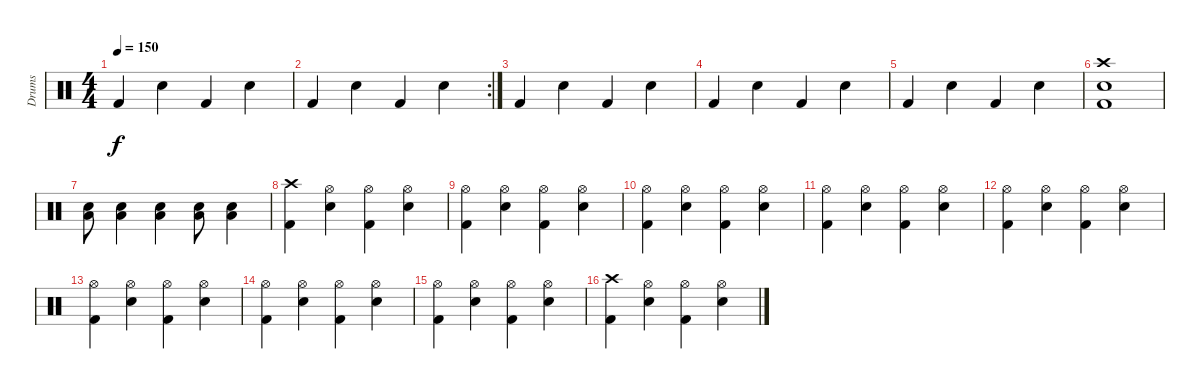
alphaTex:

\track ("Drums" "Drums") {instrument percussion}
\staff {score}
\articulation defaults
\ts (4 4)
\tempo 150
\clef neutral
\ks c "Kick (hit) 2".4{dy f} "Electric Snare (hit)".4 "Kick (hit) 2".4 "Electric Snare (hit)".4
|
\rc 2 "Kick (hit) 2".4 "Electric Snare (hit)".4 "Kick (hit) 2".4 "Electric Snare (hit)".4
|
"Kick (hit) 2".4 "Electric Snare (hit)".4 "Kick (hit) 2".4 "Electric Snare (hit)".4 |
"Kick (hit) 2".4 "Electric Snare (hit)".4 "Kick (hit) 2".4 "Electric Snare (hit)".4 |
"Kick (hit) 2".4 "Electric Snare (hit)".4 "Kick (hit) 2".4 "Electric Snare (hit)".4 |
("Crash high (hit)" "Electric Snare (hit)" "Kick (hit) 2").1 |
("Electric Snare (hit)" "Low Floor Tom (hit)").8 ("Electric Snare (hit)" "Low Floor Tom (hit)").4 ("Electric Snare (hit)" "Low Floor Tom (hit)").4 ("Electric Snare (hit)" "Low Floor Tom (hit)").8 ("Electric Snare (hit)" "Low Floor Tom (hit)").4 |
("Crash high (hit)" "Kick (hit) 2").4 ("Hi-Hat (open)" "Electric Snare (hit)").4 ("Hi-Hat (open)" "Kick (hit) 2").4 ("Hi-Hat (open)" "Electric Snare (hit)").4 |
("Hi-Hat (open)" "Kick (hit) 2").4 ("Hi-Hat (open)" "Electric Snare (hit)").4 ("Hi-Hat (open)" "Kick (hit) 2").4 ("Hi-Hat (open)" "Electric Snare (hit)").4 |
("Hi-Hat (open)" "Kick (hit) 2").4 ("Hi-Hat (open)" "Electric Snare (hit)").4 ("Hi-Hat (open)" "Kick (hit) 2").4 ("Hi-Hat (open)" "Electric Snare (hit)").4 |
("Hi-Hat (open)" "Kick (hit) 2").4 ("Hi-Hat (open)" "Electric Snare (hit)").4 ("Hi-Hat (open)" "Kick (hit) 2").4 ("Hi-Hat (open)" "Electric Snare (hit)").4 |
("Hi-Hat (open)" "Kick (hit) 2").4 ("Hi-Hat (open)" "Electric Snare (hit)").4 ("Hi-Hat (open)" "Kick (hit) 2").4 ("Hi-Hat (open)" "Electric Snare (hit)").4 |
("Hi-Hat (open)" "Kick (hit) 2").4 ("Hi-Hat (open)" "Electric Snare (hit)").4 ("Hi-Hat (open)" "Kick (hit) 2").4 ("Hi-Hat (open)" "Electric Snare (hit)").4 |
("Hi-Hat (open)" "Kick (hit) 2").4 ("Hi-Hat (open)" "Electric Snare (hit)").4 ("Hi-Hat (open)" "Kick (hit) 2").4 ("Hi-Hat (open)" "Electric Snare (hit)").4 |
("Hi-Hat (open)" "Kick (hit) 2").4 ("Hi-Hat (open)" "Electric Snare (hit)").4 ("Hi-Hat (open)" "Kick (hit) 2").4 ("Hi-Hat (open)" "Electric Snare (hit)").4 |
("Crash high (hit)" "Kick (hit) 2").4 ("Hi-Hat (open)" "Electric Snare (hit)").4 ("Hi-Hat (open)" "Kick (hit) 2").4 ("Hi-Hat (open)" "Electric Snare (hit)").4
